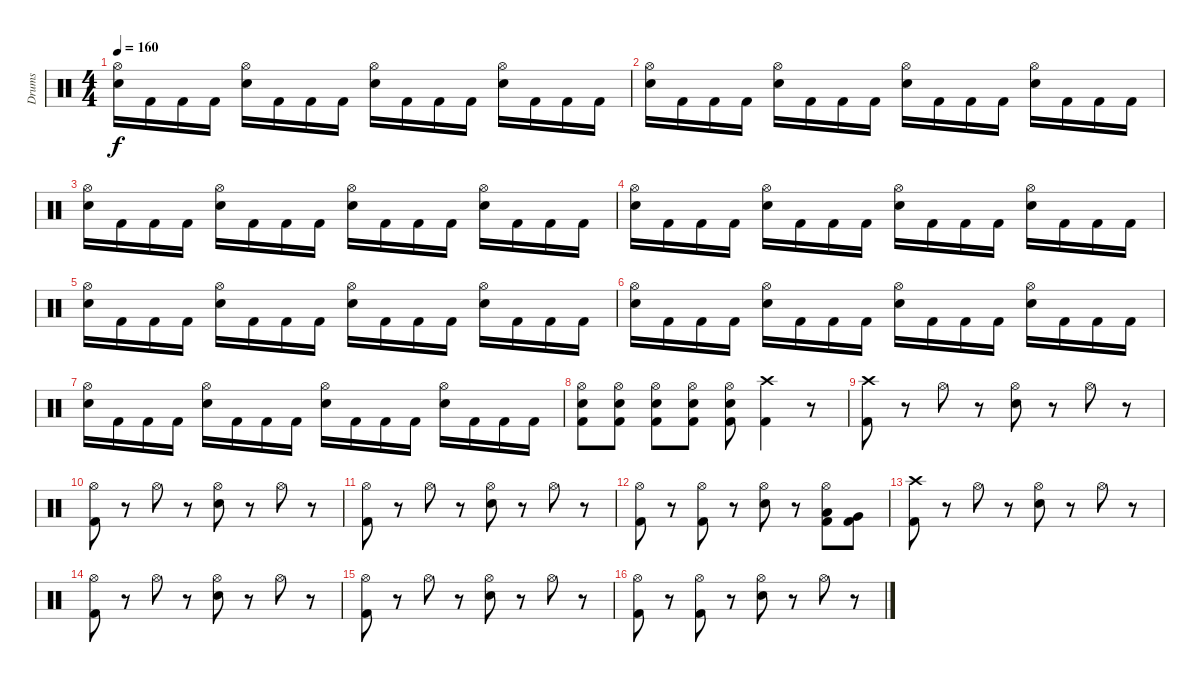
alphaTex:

\track ("Drums" "Drums") {instrument percussion}
\staff {score}
\articulation defaults
\ts (4 4)
\tempo 160
\clef neutral
\ks c
("Hi-Hat (open)" "Electric Snare (hit)").16{dy f} "Kick (hit) 2".16 "Kick (hit) 2".16 "Kick (hit) 2".16 ("Hi-Hat (open)" "Electric Snare (hit)").16 "Kick (hit) 2".16 "Kick (hit) 2".16 "Kick (hit) 2".16 ("Hi-Hat (open)" "Electric Snare (hit)").16 "Kick (hit) 2".16 "Kick (hit) 2".16 "Kick (hit) 2".16 ("Hi-Hat (open)" "Electric Snare (hit)").16 "Kick (hit) 2".16 "Kick (hit) 2".16 "Kick (hit) 2".16 |
("Hi-Hat (open)" "Electric Snare (hit)").16 "Kick (hit) 2".16 "Kick (hit) 2".16 "Kick (hit) 2".16 ("Hi-Hat (open)" "Electric Snare (hit)").16 "Kick (hit) 2".16 "Kick (hit) 2".16 "Kick (hit) 2".16 ("Hi-Hat (open)" "Electric Snare (hit)").16 "Kick (hit) 2".16 "Kick (hit) 2".16 "Kick (hit) 2".16 ("Hi-Hat (open)" "Electric Snare (hit)").16 "Kick (hit) 2".16 "Kick (hit) 2".16 "Kick (hit) 2".16 |
("Hi-Hat (open)" "Electric Snare (hit)").16 "Kick (hit) 2".16 "Kick (hit) 2".16 "Kick (hit) 2".16 ("Hi-Hat (open)" "Electric Snare (hit)").16 "Kick (hit) 2".16 "Kick (hit) 2".16 "Kick (hit) 2".16 ("Hi-Hat (open)" "Electric Snare (hit)").16 "Kick (hit) 2".16 "Kick (hit) 2".16 "Kick (hit) 2".16 ("Hi-Hat (open)" "Electric Snare (hit)").16 "Kick (hit) 2".16 "Kick (hit) 2".16 "Kick (hit) 2".16 |
("Hi-Hat (open)" "Electric Snare (hit)").16 "Kick (hit) 2".16 "Kick (hit) 2".16 "Kick (hit) 2".16 ("Hi-Hat (open)" "Electric Snare (hit)").16 "Kick (hit) 2".16 "Kick (hit) 2".16 "Kick (hit) 2".16 ("Hi-Hat (open)" "Electric Snare (hit)").16 "Kick (hit) 2".16 "Kick (hit) 2".16 "Kick (hit) 2".16 ("Hi-Hat (open)" "Electric Snare (hit)").16 "Kick (hit) 2".16 "Kick (hit) 2".16 "Kick (hit) 2".16 |
("Hi-Hat (open)" "Electric Snare (hit)").16 "Kick (hit) 2".16 "Kick (hit) 2".16 "Kick (hit) 2".16 ("Hi-Hat (open)" "Electric Snare (hit)").16 "Kick (hit) 2".16 "Kick (hit) 2".16 "Kick (hit) 2".16 ("Hi-Hat (open)" "Electric Snare (hit)").16 "Kick (hit) 2".16 "Kick (hit) 2".16 "Kick (hit) 2".16 ("Hi-Hat (open)" "Electric Snare (hit)").16 "Kick (hit) 2".16 "Kick (hit) 2".16 "Kick (hit) 2".16 |
("Hi-Hat (open)" "Electric Snare (hit)").16 "Kick (hit) 2".16 "Kick (hit) 2".16 "Kick (hit) 2".16 ("Hi-Hat (open)" "Electric Snare (hit)").16 "Kick (hit) 2".16 "Kick (hit) 2".16 "Kick (hit) 2".16 ("Hi-Hat (open)" "Electric Snare (hit)").16 "Kick (hit) 2".16 "Kick (hit) 2".16 "Kick (hit) 2".16 ("Hi-Hat (open)" "Electric Snare (hit)").16 "Kick (hit) 2".16 "Kick (hit) 2".16 "Kick (hit) 2".16 |
("Hi-Hat (open)" "Electric Snare (hit)").16 "Kick (hit) 2".16 "Kick (hit) 2".16 "Kick (hit) 2".16 ("Hi-Hat (open)" "Electric Snare (hit)").16 "Kick (hit) 2".16 "Kick (hit) 2".16 "Kick (hit) 2".16 ("Hi-Hat (open)" "Electric Snare (hit)").16 "Kick (hit) 2".16 "Kick (hit) 2".16 "Kick (hit) 2".16 ("Hi-Hat (open)" "Electric Snare (hit)").16 "Kick (hit) 2".16 "Kick (hit) 2".16 "Kick (hit) 2".16 |
("Hi-Hat (open)" "Electric Snare (hit)" "Kick (hit) 2").8 ("Hi-Hat (open)" "Electric Snare (hit)" "Kick (hit) 2").8 ("Hi-Hat (open)" "Electric Snare (hit)" "Kick (hit) 2").8 ("Hi-Hat (open)" "Electric Snare (hit)" "Kick (hit) 2").8 ("Hi-Hat (open)" "Electric Snare (hit)" "Kick (hit) 2").8 ("Crash high (hit)" "Kick (hit) 2").4 r.8 |
("Crash high (hit)" "Kick (hit) 2").8 r.8 "Hi-Hat (open)".8 r.8 ("Hi-Hat (open)" "Electric Snare (hit)").8 r.8 "Hi-Hat (open)".8 r.8 |
("Hi-Hat (open)" "Kick (hit) 2").8 r.8 "Hi-Hat (open)".8 r.8 ("Hi-Hat (open)" "Electric Snare (hit)").8 r.8 "Hi-Hat (open)".8 r.8 |
("Hi-Hat (open)" "Kick (hit) 2").8 r.8 "Hi-Hat (open)".8 r.8 ("Hi-Hat (open)" "Electric Snare (hit)").8 r.8 "Hi-Hat (open)".8 r.8 |
("Hi-Hat (open)" "Kick (hit) 2").8 r.8 ("Hi-Hat (open)" "Kick (hit) 2").8 r.8 ("Hi-Hat (open)" "Electric Snare (hit)").8 r.8 ("Hi-Hat (open)" "Low Tom (hit)" "Kick (hit) 2").8 ("Very Low Tom (hit)" "Kick (hit) 2").8 |
("Crash high (hit)" "Kick (hit) 2").8 r.8 "Hi-Hat (open)".8 r.8 ("Hi-Hat (open)" "Electric Snare (hit)").8 r.8 "Hi-Hat (open)".8 r.8 |
("Hi-Hat (open)" "Kick (hit) 2").8 r.8 "Hi-Hat (open)".8 r.8 ("Hi-Hat (open)" "Electric Snare (hit)").8 r.8 "Hi-Hat (open)".8 r.8 |
("Hi-Hat (open)" "Kick (hit) 2").8 r.8 "Hi-Hat (open)".8 r.8 ("Hi-Hat (open)" "Electric Snare (hit)").8 r.8 "Hi-Hat (open)".8 r.8 |
("Hi-Hat (open)" "Kick (hit) 2").8 r.8 ("Hi-Hat (open)" "Kick (hit) 2").8 r.8 ("Hi-Hat (open)" "Electric Snare (hit)").8 r.8 "Hi-Hat (open)".8 r.8
